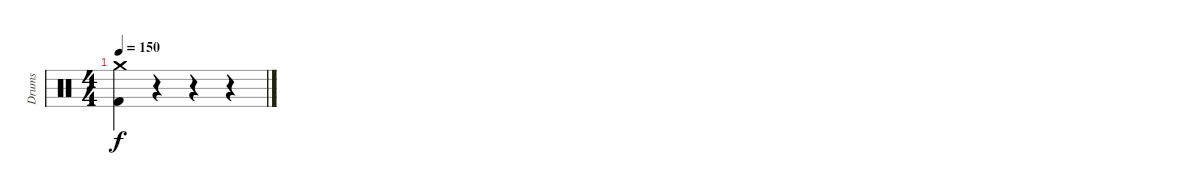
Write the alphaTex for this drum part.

\track ("Drums" "Drums") {instrument percussion}
\staff {score}
\articulation defaults
\ts (4 4)
\tempo 150
\clef neutral
\ks c
("Crash medium (hit)" "Kick (hit) 2").4{dy f} r.4 r.4 r.4
